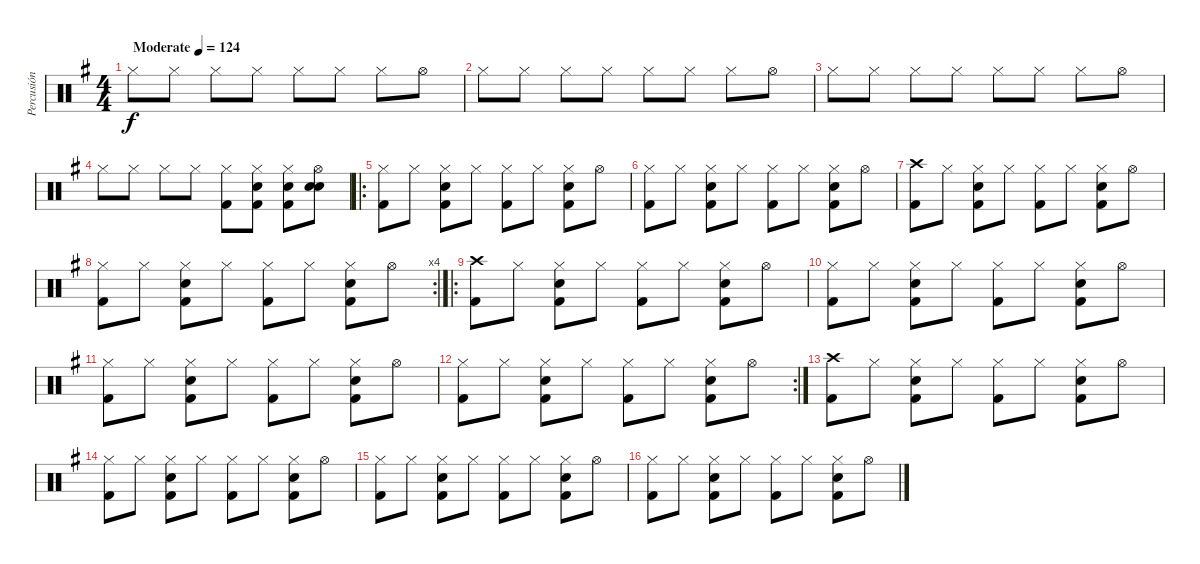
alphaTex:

\track ("Percusión" "Percusión") {instrument percussion}
\staff {score}
\articulation defaults
\ts (4 4)
\tempo (124 "Moderate")
\clef neutral
\ks g "Hi-Hat (closed)".8{dy f} "Hi-Hat (closed)".8 "Hi-Hat (closed)".8 "Hi-Hat (closed)".8 "Hi-Hat (closed)".8 "Hi-Hat (closed)".8 "Hi-Hat (closed)".8 "Hi-Hat (open)".8
|
"Hi-Hat (closed)".8 "Hi-Hat (closed)".8 "Hi-Hat (closed)".8 "Hi-Hat (closed)".8 "Hi-Hat (closed)".8 "Hi-Hat (closed)".8 "Hi-Hat (closed)".8 "Hi-Hat (open)".8 |
"Hi-Hat (closed)".8 "Hi-Hat (closed)".8 "Hi-Hat (closed)".8 "Hi-Hat (closed)".8 "Hi-Hat (closed)".8 "Hi-Hat (closed)".8 "Hi-Hat (closed)".8 "Hi-Hat (open)".8 |
"Hi-Hat (closed)".8 "Hi-Hat (closed)".8 "Hi-Hat (closed)".8 "Hi-Hat (closed)".8 ("Hi-Hat (closed)" "Kick (hit) 2").8 ("Hi-Hat (closed)" "Electric Snare (hit)" "Kick (hit) 2").8 ("Hi-Hat (closed)" "Electric Snare (hit)" "Kick (hit) 2").8 ("Hi-Hat (open)" "Electric Snare (hit)" "Snare (hit) 2").8 |
\ro
("Hi-Hat (closed)" "Kick (hit) 2").8 "Hi-Hat (closed)".8 ("Hi-Hat (closed)" "Electric Snare (hit)" "Kick (hit) 2").8 "Hi-Hat (closed)".8 ("Hi-Hat (closed)" "Kick (hit) 2").8 "Hi-Hat (closed)".8 ("Hi-Hat (closed)" "Electric Snare (hit)" "Kick (hit) 2").8 "Hi-Hat (open)".8 |
("Hi-Hat (closed)" "Kick (hit) 2").8 "Hi-Hat (closed)".8 ("Hi-Hat (closed)" "Electric Snare (hit)" "Kick (hit) 2").8 "Hi-Hat (closed)".8 ("Hi-Hat (closed)" "Kick (hit) 2").8 "Hi-Hat (closed)".8 ("Hi-Hat (closed)" "Electric Snare (hit)" "Kick (hit) 2").8 "Hi-Hat (open)".8 |
("Crash high (hit)" "Kick (hit) 2").8 "Hi-Hat (closed)".8 ("Hi-Hat (closed)" "Electric Snare (hit)" "Kick (hit) 2").8 "Hi-Hat (closed)".8 ("Hi-Hat (closed)" "Kick (hit) 2").8 "Hi-Hat (closed)".8 ("Hi-Hat (closed)" "Electric Snare (hit)" "Kick (hit) 2").8 "Hi-Hat (open)".8 |
\rc 4
("Hi-Hat (closed)" "Kick (hit) 2").8 "Hi-Hat (closed)".8 ("Hi-Hat (closed)" "Electric Snare (hit)" "Kick (hit) 2").8 "Hi-Hat (closed)".8 ("Hi-Hat (closed)" "Kick (hit) 2").8 "Hi-Hat (closed)".8 ("Hi-Hat (closed)" "Electric Snare (hit)" "Kick (hit) 2").8 "Hi-Hat (open)".8 |
\ro
("Crash high (hit)" "Kick (hit) 2").8 "Hi-Hat (closed)".8 ("Hi-Hat (closed)" "Electric Snare (hit)" "Kick (hit) 2").8 "Hi-Hat (closed)".8 ("Hi-Hat (closed)" "Kick (hit) 2").8 "Hi-Hat (closed)".8 ("Hi-Hat (closed)" "Electric Snare (hit)" "Kick (hit) 2").8 "Hi-Hat (open)".8 |
("Hi-Hat (closed)" "Kick (hit) 2").8 "Hi-Hat (closed)".8 ("Hi-Hat (closed)" "Electric Snare (hit)" "Kick (hit) 2").8 "Hi-Hat (closed)".8 ("Hi-Hat (closed)" "Kick (hit) 2").8 "Hi-Hat (closed)".8 ("Hi-Hat (closed)" "Electric Snare (hit)" "Kick (hit) 2").8 "Hi-Hat (open)".8 |
("Hi-Hat (closed)" "Kick (hit) 2").8 "Hi-Hat (closed)".8 ("Hi-Hat (closed)" "Electric Snare (hit)" "Kick (hit) 2").8 "Hi-Hat (closed)".8 ("Hi-Hat (closed)" "Kick (hit) 2").8 "Hi-Hat (closed)".8 ("Hi-Hat (closed)" "Electric Snare (hit)" "Kick (hit) 2").8 "Hi-Hat (open)".8 |
\rc 2
("Hi-Hat (closed)" "Kick (hit) 2").8 "Hi-Hat (closed)".8 ("Hi-Hat (closed)" "Electric Snare (hit)" "Kick (hit) 2").8 "Hi-Hat (closed)".8 ("Hi-Hat (closed)" "Kick (hit) 2").8 "Hi-Hat (closed)".8 ("Hi-Hat (closed)" "Electric Snare (hit)" "Kick (hit) 2").8 "Hi-Hat (open)".8 |
("Crash high (hit)" "Kick (hit) 2").8 "Hi-Hat (closed)".8 ("Hi-Hat (closed)" "Electric Snare (hit)" "Kick (hit) 2").8 "Hi-Hat (closed)".8 ("Hi-Hat (closed)" "Kick (hit) 2").8 "Hi-Hat (closed)".8 ("Hi-Hat (closed)" "Electric Snare (hit)" "Kick (hit) 2").8 "Hi-Hat (open)".8 |
("Hi-Hat (closed)" "Kick (hit) 2").8 "Hi-Hat (closed)".8 ("Hi-Hat (closed)" "Electric Snare (hit)" "Kick (hit) 2").8 "Hi-Hat (closed)".8 ("Hi-Hat (closed)" "Kick (hit) 2").8 "Hi-Hat (closed)".8 ("Hi-Hat (closed)" "Electric Snare (hit)" "Kick (hit) 2").8 "Hi-Hat (open)".8 |
("Hi-Hat (closed)" "Kick (hit) 2").8 "Hi-Hat (closed)".8 ("Hi-Hat (closed)" "Electric Snare (hit)" "Kick (hit) 2").8 "Hi-Hat (closed)".8 ("Hi-Hat (closed)" "Kick (hit) 2").8 "Hi-Hat (closed)".8 ("Hi-Hat (closed)" "Electric Snare (hit)" "Kick (hit) 2").8 "Hi-Hat (open)".8 |
("Hi-Hat (closed)" "Kick (hit) 2").8 "Hi-Hat (closed)".8 ("Hi-Hat (closed)" "Electric Snare (hit)" "Kick (hit) 2").8 "Hi-Hat (closed)".8 ("Hi-Hat (closed)" "Kick (hit) 2").8 "Hi-Hat (closed)".8 ("Hi-Hat (closed)" "Electric Snare (hit)" "Kick (hit) 2").8 "Hi-Hat (open)".8
